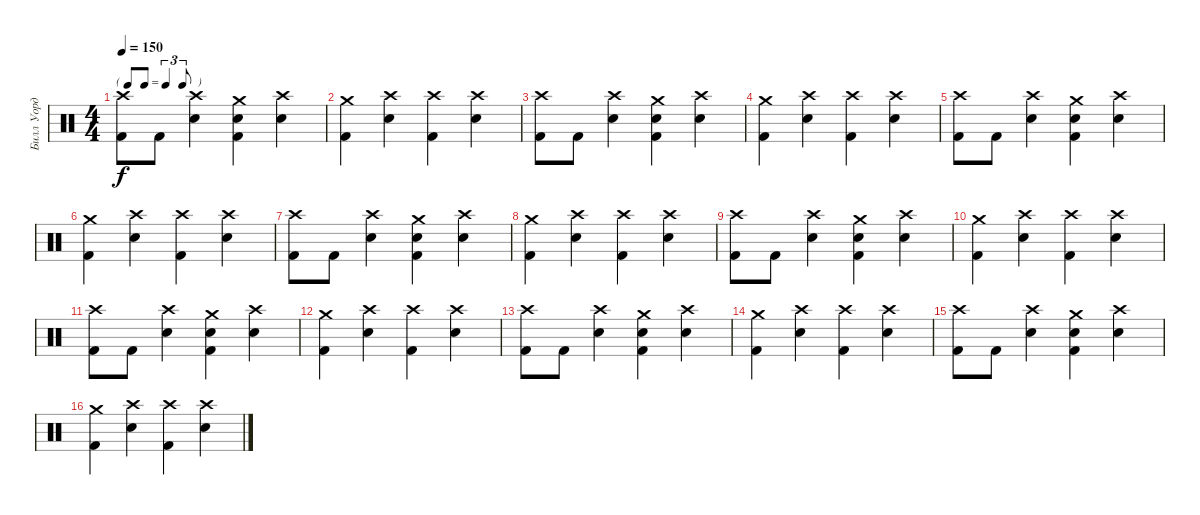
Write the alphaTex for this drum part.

\track ("Билл Уорд" "Билл Уорд") {instrument percussion}
\staff {score}
\articulation defaults
\ts (4 4)
\tf triplet8th
\tempo 150
\clef neutral
\ks c
("Kick (hit) 2" "Crash high (hit)").8{dy f} "Kick (hit) 2".8 ("Snare (hit) 2" "Crash high (hit)").4 ("Snare (hit) 2" "Kick (hit) 2" "Crash medium (hit)").4 ("Snare (hit) 2" "Crash high (hit)").4 |
("Kick (hit) 2" "Crash medium (hit)").4 ("Snare (hit) 2" "Crash high (hit)").4 ("Kick (hit) 2" "Crash high (hit)").4 ("Snare (hit) 2" "Crash high (hit)").4 |
("Kick (hit) 2" "Crash high (hit)").8 "Kick (hit) 2".8 ("Snare (hit) 2" "Crash high (hit)").4 ("Snare (hit) 2" "Kick (hit) 2" "Crash medium (hit)").4 ("Snare (hit) 2" "Crash high (hit)").4 |
("Kick (hit) 2" "Crash medium (hit)").4 ("Snare (hit) 2" "Crash high (hit)").4 ("Kick (hit) 2" "Crash high (hit)").4 ("Snare (hit) 2" "Crash high (hit)").4 |
("Kick (hit) 2" "Crash high (hit)").8 "Kick (hit) 2".8 ("Snare (hit) 2" "Crash high (hit)").4 ("Snare (hit) 2" "Kick (hit) 2" "Crash medium (hit)").4 ("Snare (hit) 2" "Crash high (hit)").4 |
("Kick (hit) 2" "Crash medium (hit)").4 ("Snare (hit) 2" "Crash high (hit)").4 ("Kick (hit) 2" "Crash high (hit)").4 ("Snare (hit) 2" "Crash high (hit)").4 |
("Kick (hit) 2" "Crash high (hit)").8 "Kick (hit) 2".8 ("Snare (hit) 2" "Crash high (hit)").4 ("Snare (hit) 2" "Kick (hit) 2" "Crash medium (hit)").4 ("Snare (hit) 2" "Crash high (hit)").4 |
("Kick (hit) 2" "Crash medium (hit)").4 ("Snare (hit) 2" "Crash high (hit)").4 ("Kick (hit) 2" "Crash high (hit)").4 ("Snare (hit) 2" "Crash high (hit)").4 |
("Kick (hit) 2" "Crash high (hit)").8 "Kick (hit) 2".8 ("Snare (hit) 2" "Crash high (hit)").4 ("Snare (hit) 2" "Kick (hit) 2" "Crash medium (hit)").4 ("Snare (hit) 2" "Crash high (hit)").4 |
("Kick (hit) 2" "Crash medium (hit)").4 ("Snare (hit) 2" "Crash high (hit)").4 ("Kick (hit) 2" "Crash high (hit)").4 ("Snare (hit) 2" "Crash high (hit)").4 |
("Kick (hit) 2" "Crash high (hit)").8 "Kick (hit) 2".8 ("Snare (hit) 2" "Crash high (hit)").4 ("Snare (hit) 2" "Kick (hit) 2" "Crash medium (hit)").4 ("Snare (hit) 2" "Crash high (hit)").4 |
("Kick (hit) 2" "Crash medium (hit)").4 ("Snare (hit) 2" "Crash high (hit)").4 ("Kick (hit) 2" "Crash high (hit)").4 ("Snare (hit) 2" "Crash high (hit)").4 |
("Kick (hit) 2" "Crash high (hit)").8 "Kick (hit) 2".8 ("Snare (hit) 2" "Crash high (hit)").4 ("Snare (hit) 2" "Kick (hit) 2" "Crash medium (hit)").4 ("Snare (hit) 2" "Crash high (hit)").4 |
("Kick (hit) 2" "Crash medium (hit)").4 ("Snare (hit) 2" "Crash high (hit)").4 ("Kick (hit) 2" "Crash high (hit)").4 ("Snare (hit) 2" "Crash high (hit)").4 |
("Kick (hit) 2" "Crash high (hit)").8 "Kick (hit) 2".8 ("Snare (hit) 2" "Crash high (hit)").4 ("Snare (hit) 2" "Kick (hit) 2" "Crash medium (hit)").4 ("Snare (hit) 2" "Crash high (hit)").4 |
("Kick (hit) 2" "Crash medium (hit)").4 ("Snare (hit) 2" "Crash high (hit)").4 ("Kick (hit) 2" "Crash high (hit)").4 ("Snare (hit) 2" "Crash high (hit)").4
